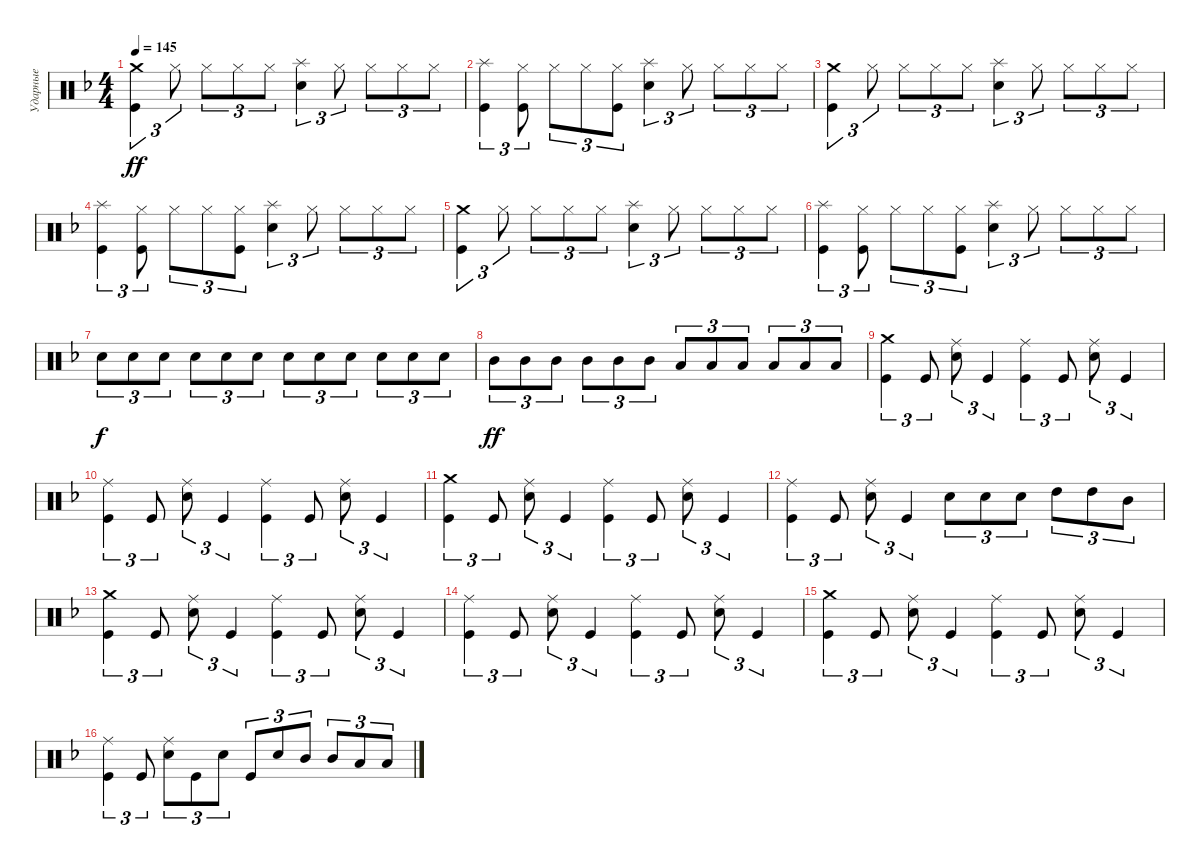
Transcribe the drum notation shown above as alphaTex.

\track ("Ударные" "Ударные") {instrument percussion}
\staff {score}
\articulation defaults
\ts (4 4)
\tempo 145
\clef neutral
\ks dminor
("Crash medium (hit)" "Kick (hit)").4{tu (3 2) dy ff} "Hi-Hat (closed)".8{tu (3 2)} "Hi-Hat (closed)".8{tu (3 2)} "Hi-Hat (closed)".8{tu (3 2)} "Hi-Hat (closed)".8{tu (3 2)} ("Splash (hit)" "Electric Snare (hit)").4{tu (3 2)} "Hi-Hat (closed)".8{tu (3 2)} "Hi-Hat (closed)".8{tu (3 2)} "Hi-Hat (closed)".8{tu (3 2)} "Hi-Hat (closed)".8{tu (3 2)} |
("Splash (hit)" "Kick (hit)").4{tu (3 2)} ("Kick (hit)" "Hi-Hat (closed)").8{tu (3 2)} "Hi-Hat (closed)".8{tu (3 2)} "Hi-Hat (closed)".8{tu (3 2)} ("Kick (hit)" "Hi-Hat (closed)").8{tu (3 2)} ("Splash (hit)" "Electric Snare (hit)").4{tu (3 2)} "Hi-Hat (closed)".8{tu (3 2)} "Hi-Hat (closed)".8{tu (3 2)} "Hi-Hat (closed)".8{tu (3 2)} "Hi-Hat (closed)".8{tu (3 2)} |
("Crash medium (hit)" "Kick (hit)").4{tu (3 2)} "Hi-Hat (closed)".8{tu (3 2)} "Hi-Hat (closed)".8{tu (3 2)} "Hi-Hat (closed)".8{tu (3 2)} "Hi-Hat (closed)".8{tu (3 2)} ("Splash (hit)" "Electric Snare (hit)").4{tu (3 2)} "Hi-Hat (closed)".8{tu (3 2)} "Hi-Hat (closed)".8{tu (3 2)} "Hi-Hat (closed)".8{tu (3 2)} "Hi-Hat (closed)".8{tu (3 2)} |
("Splash (hit)" "Kick (hit)").4{tu (3 2)} ("Kick (hit)" "Hi-Hat (closed)").8{tu (3 2)} "Hi-Hat (closed)".8{tu (3 2)} "Hi-Hat (closed)".8{tu (3 2)} ("Kick (hit)" "Hi-Hat (closed)").8{tu (3 2)} ("Splash (hit)" "Electric Snare (hit)").4{tu (3 2)} "Hi-Hat (closed)".8{tu (3 2)} "Hi-Hat (closed)".8{tu (3 2)} "Hi-Hat (closed)".8{tu (3 2)} "Hi-Hat (closed)".8{tu (3 2)} |
("Crash medium (hit)" "Kick (hit)").4{tu (3 2)} "Hi-Hat (closed)".8{tu (3 2)} "Hi-Hat (closed)".8{tu (3 2)} "Hi-Hat (closed)".8{tu (3 2)} "Hi-Hat (closed)".8{tu (3 2)} ("Splash (hit)" "Electric Snare (hit)").4{tu (3 2)} "Hi-Hat (closed)".8{tu (3 2)} "Hi-Hat (closed)".8{tu (3 2)} "Hi-Hat (closed)".8{tu (3 2)} "Hi-Hat (closed)".8{tu (3 2)} |
("Splash (hit)" "Kick (hit)").4{tu (3 2)} ("Kick (hit)" "Hi-Hat (closed)").8{tu (3 2)} "Hi-Hat (closed)".8{tu (3 2)} "Hi-Hat (closed)".8{tu (3 2)} ("Kick (hit)" "Hi-Hat (closed)").8{tu (3 2)} ("Splash (hit)" "Electric Snare (hit)").4{tu (3 2)} "Hi-Hat (closed)".8{tu (3 2)} "Hi-Hat (closed)".8{tu (3 2)} "Hi-Hat (closed)".8{tu (3 2)} "Hi-Hat (closed)".8{tu (3 2)} |
"Electric Snare (hit)".8{tu (3 2) dy f} "Electric Snare (hit)".8{tu (3 2)} "Electric Snare (hit)".8{tu (3 2)} "Electric Snare (hit)".8{tu (3 2)} "Electric Snare (hit)".8{tu (3 2)} "Electric Snare (hit)".8{tu (3 2)} "Electric Snare (hit)".8{tu (3 2)} "Electric Snare (hit)".8{tu (3 2)} "Electric Snare (hit)".8{tu (3 2)} "Electric Snare (hit)".8{tu (3 2)} "Electric Snare (hit)".8{tu (3 2)} "Electric Snare (hit)".8{tu (3 2)} |
"Mid Tom (hit)".8{tu (3 2) dy ff} "Mid Tom (hit)".8{tu (3 2)} "Mid Tom (hit)".8{tu (3 2)} "Mid Tom (hit)".8{tu (3 2)} "Mid Tom (hit)".8{tu (3 2)} "Mid Tom (hit)".8{tu (3 2)} "Low Tom (hit)".8{tu (3 2)} "Low Tom (hit)".8{tu (3 2)} "Low Tom (hit)".8{tu (3 2)} "Low Tom (hit)".8{tu (3 2)} "Low Tom (hit)".8{tu (3 2)} "Low Tom (hit)".8{tu (3 2)} |
("Crash medium (hit)" "Kick (hit)").4{tu (3 2)} "Kick (hit)".8{tu (3 2)} ("Ride (middle)" "Electric Snare (hit)").8{tu (3 2)} "Kick (hit)".4{tu (3 2)} ("Ride (middle)" "Kick (hit)").4{tu (3 2)} "Kick (hit)".8{tu (3 2)} ("Ride (middle)" "Electric Snare (hit)").8{tu (3 2)} "Kick (hit)".4{tu (3 2)} |
("Ride (middle)" "Kick (hit)").4{tu (3 2)} "Kick (hit)".8{tu (3 2)} ("Ride (middle)" "Electric Snare (hit)").8{tu (3 2)} "Kick (hit)".4{tu (3 2)} ("Ride (middle)" "Kick (hit)").4{tu (3 2)} "Kick (hit)".8{tu (3 2)} ("Ride (middle)" "Electric Snare (hit)").8{tu (3 2)} "Kick (hit)".4{tu (3 2)} |
("Crash medium (hit)" "Kick (hit)").4{tu (3 2)} "Kick (hit)".8{tu (3 2)} ("Ride (middle)" "Electric Snare (hit)").8{tu (3 2)} "Kick (hit)".4{tu (3 2)} ("Ride (middle)" "Kick (hit)").4{tu (3 2)} "Kick (hit)".8{tu (3 2)} ("Ride (middle)" "Electric Snare (hit)").8{tu (3 2)} "Kick (hit)".4{tu (3 2)} |
("Ride (middle)" "Kick (hit)").4{tu (3 2)} "Kick (hit)".8{tu (3 2)} ("Ride (middle)" "Electric Snare (hit)").8{tu (3 2)} "Kick (hit)".4{tu (3 2)} "Electric Snare (hit)".8{tu (3 2)} "Electric Snare (hit)".8{tu (3 2)} "Electric Snare (hit)".8{tu (3 2)} "High Tom (hit)".8{tu (3 2)} "High Tom (hit)".8{tu (3 2)} "Mid Tom (hit)".8{tu (3 2)} |
("Crash medium (hit)" "Kick (hit)").4{tu (3 2)} "Kick (hit)".8{tu (3 2)} ("Ride (middle)" "Electric Snare (hit)").8{tu (3 2)} "Kick (hit)".4{tu (3 2)} ("Ride (middle)" "Kick (hit)").4{tu (3 2)} "Kick (hit)".8{tu (3 2)} ("Ride (middle)" "Electric Snare (hit)").8{tu (3 2)} "Kick (hit)".4{tu (3 2)} |
("Ride (middle)" "Kick (hit)").4{tu (3 2)} "Kick (hit)".8{tu (3 2)} ("Ride (middle)" "Electric Snare (hit)").8{tu (3 2)} "Kick (hit)".4{tu (3 2)} ("Ride (middle)" "Kick (hit)").4{tu (3 2)} "Kick (hit)".8{tu (3 2)} ("Ride (middle)" "Electric Snare (hit)").8{tu (3 2)} "Kick (hit)".4{tu (3 2)} |
("Crash medium (hit)" "Kick (hit)").4{tu (3 2)} "Kick (hit)".8{tu (3 2)} ("Ride (middle)" "Electric Snare (hit)").8{tu (3 2)} "Kick (hit)".4{tu (3 2)} ("Ride (middle)" "Kick (hit)").4{tu (3 2)} "Kick (hit)".8{tu (3 2)} ("Ride (middle)" "Electric Snare (hit)").8{tu (3 2)} "Kick (hit)".4{tu (3 2)} |
("Ride (middle)" "Kick (hit)").4{tu (3 2)} "Kick (hit)".8{tu (3 2)} ("Ride (middle)" "Electric Snare (hit)").8{tu (3 2)} "Kick (hit)".8{tu (3 2)} "Electric Snare (hit)".8{tu (3 2)} "Kick (hit)".8{tu (3 2)} "Electric Snare (hit)".8{tu (3 2)} "Mid Tom (hit)".8{tu (3 2)} "Mid Tom (hit)".8{tu (3 2)} "Low Tom (hit)".8{tu (3 2)} "Low Tom (hit)".8{tu (3 2)}
